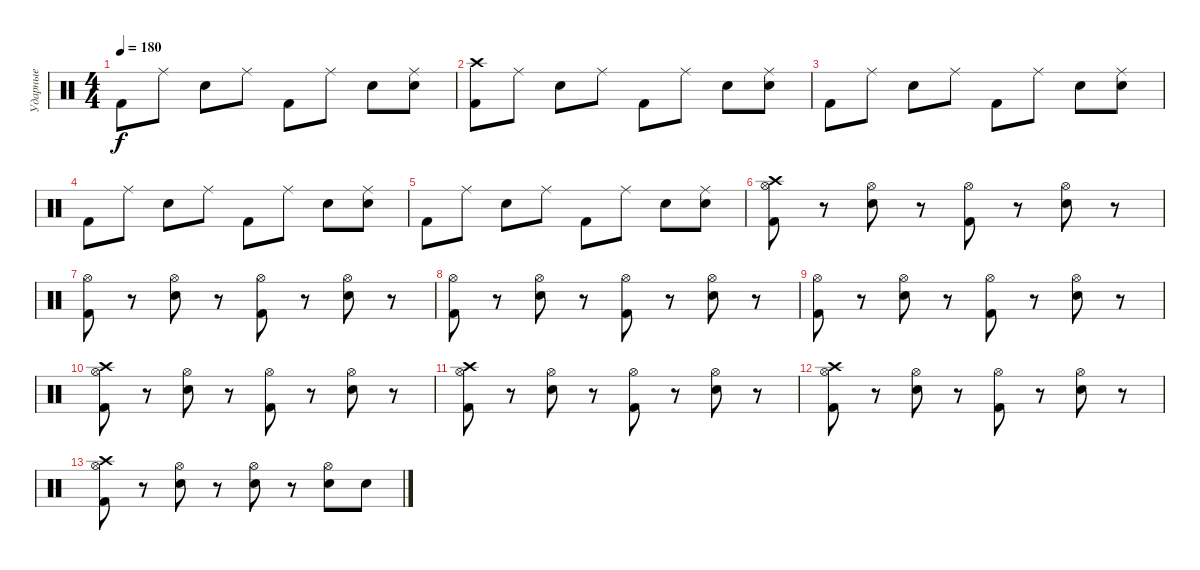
\track ("Ударные" "Ударные") {instrument percussion}
\staff {score}
\articulation defaults
\ts (4 4)
\tempo 180
\clef neutral
\ks c "Kick (hit) 2".8{dy f} "Ride (middle)".8 "Electric Snare (hit)".8 "Ride (middle)".8 "Kick (hit) 2".8 "Ride (middle)".8 "Electric Snare (hit)".8
("Ride (middle)" "Electric Snare (hit)").8 |
("Kick (hit) 2" "Crash high (hit)").8 "Ride (middle)".8 "Electric Snare (hit)".8 "Ride (middle)".8 "Kick (hit) 2".8 "Ride (middle)".8 "Electric Snare (hit)".8 ("Ride (middle)" "Electric Snare (hit)").8 |
"Kick (hit) 2".8 "Ride (middle)".8 "Electric Snare (hit)".8 "Ride (middle)".8 "Kick (hit) 2".8 "Ride (middle)".8 "Electric Snare (hit)".8 ("Ride (middle)" "Electric Snare (hit)").8 |
"Kick (hit) 2".8 "Ride (middle)".8 "Electric Snare (hit)".8 "Ride (middle)".8 "Kick (hit) 2".8 "Ride (middle)".8 "Electric Snare (hit)".8 ("Ride (middle)" "Electric Snare (hit)").8 |
"Kick (hit) 2".8 "Ride (middle)".8 "Electric Snare (hit)".8 "Ride (middle)".8 "Kick (hit) 2".8 "Ride (middle)".8 "Electric Snare (hit)".8 ("Ride (middle)" "Electric Snare (hit)").8 |
("Hi-Hat (open)" "Kick (hit) 2" "Crash high (hit)").8 r.8 ("Hi-Hat (open)" "Electric Snare (hit)").8 r.8 ("Hi-Hat (open)" "Kick (hit) 2").8 r.8 ("Hi-Hat (open)" "Electric Snare (hit)").8 r.8 |
("Hi-Hat (open)" "Kick (hit) 2").8 r.8 ("Hi-Hat (open)" "Electric Snare (hit)").8 r.8 ("Hi-Hat (open)" "Kick (hit) 2").8 r.8 ("Hi-Hat (open)" "Electric Snare (hit)").8 r.8 |
("Hi-Hat (open)" "Kick (hit) 2").8 r.8 ("Hi-Hat (open)" "Electric Snare (hit)").8 r.8 ("Hi-Hat (open)" "Kick (hit) 2").8 r.8 ("Hi-Hat (open)" "Electric Snare (hit)").8 r.8 |
("Hi-Hat (open)" "Kick (hit) 2").8 r.8 ("Hi-Hat (open)" "Electric Snare (hit)").8 r.8 ("Hi-Hat (open)" "Kick (hit) 2").8 r.8 ("Hi-Hat (open)" "Electric Snare (hit)").8 r.8 |
("Hi-Hat (open)" "Kick (hit) 2" "Crash high (hit)").8 r.8 ("Hi-Hat (open)" "Electric Snare (hit)").8 r.8 ("Hi-Hat (open)" "Kick (hit) 2").8 r.8 ("Hi-Hat (open)" "Electric Snare (hit)").8 r.8 |
("Hi-Hat (open)" "Kick (hit) 2" "Crash high (hit)").8 r.8 ("Hi-Hat (open)" "Electric Snare (hit)").8 r.8 ("Hi-Hat (open)" "Kick (hit) 2").8 r.8 ("Hi-Hat (open)" "Electric Snare (hit)").8 r.8 |
("Hi-Hat (open)" "Kick (hit) 2" "Crash high (hit)").8 r.8 ("Hi-Hat (open)" "Electric Snare (hit)").8 r.8 ("Hi-Hat (open)" "Kick (hit) 2").8 r.8 ("Hi-Hat (open)" "Electric Snare (hit)").8 r.8 |
("Hi-Hat (open)" "Kick (hit) 2" "Crash high (hit)").8 r.8 ("Hi-Hat (open)" "Snare (hit) 2").8 r.8 ("Hi-Hat (open)" "Snare (hit) 2").8 r.8 ("Hi-Hat (open)" "Snare (hit) 2").8 "Snare (hit) 2".8
